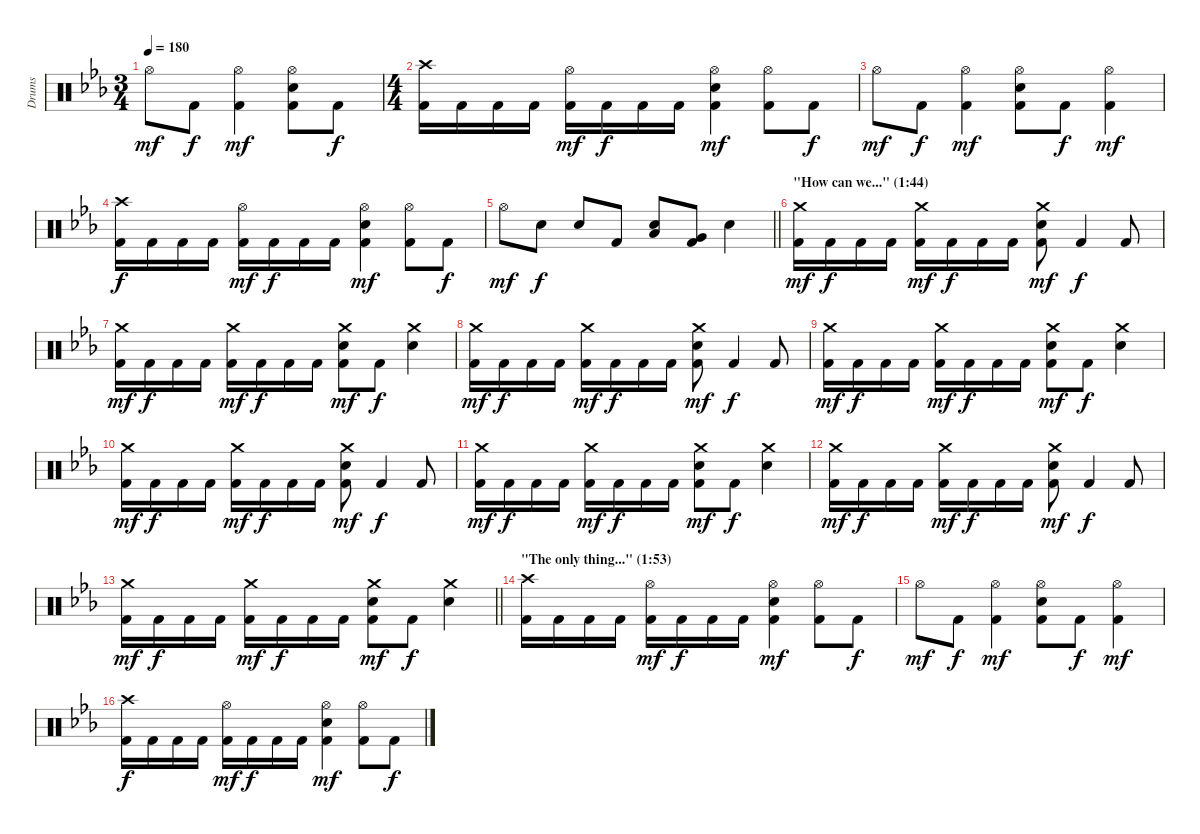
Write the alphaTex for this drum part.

\track ("Drums" "Drums") {instrument percussion}
\staff {score}
\articulation defaults
\ts (3 4)
\tempo 180
\clef neutral
\ks eb "Hi-Hat (open)".8{dy mf} "Kick (hit) 2".8{dy f}
("Hi-Hat (open)" "Kick (hit) 2").4{dy mf} ("Hi-Hat (open)" "Electric Snare (hit)" "Kick (hit) 2").8 "Kick (hit) 2".8{dy f} |
\ts (4 4)
("Crash high (hit)" "Kick (hit) 2").16 "Kick (hit) 2".16 "Kick (hit) 2".16 "Kick (hit) 2".16 ("Hi-Hat (open)" "Kick (hit) 2").16{dy mf} "Kick (hit) 2".16{dy f} "Kick (hit) 2".16 "Kick (hit) 2".16 ("Hi-Hat (open)" "Electric Snare (hit)" "Kick (hit) 2").4{dy mf} ("Hi-Hat (open)" "Kick (hit) 2").8 "Kick (hit) 2".8{dy f} |
"Hi-Hat (open)".8{dy mf} "Kick (hit) 2".8{dy f} ("Hi-Hat (open)" "Kick (hit) 2").4{dy mf} ("Hi-Hat (open)" "Electric Snare (hit)" "Kick (hit) 2").8 "Kick (hit) 2".8{dy f} ("Hi-Hat (open)" "Kick (hit) 2").4{dy mf} |
("Crash high (hit)" "Kick (hit) 2").16{dy f} "Kick (hit) 2".16 "Kick (hit) 2".16 "Kick (hit) 2".16 ("Hi-Hat (open)" "Kick (hit) 2").16{dy mf} "Kick (hit) 2".16{dy f} "Kick (hit) 2".16 "Kick (hit) 2".16 ("Hi-Hat (open)" "Electric Snare (hit)" "Kick (hit) 2").4{dy mf} ("Hi-Hat (open)" "Kick (hit) 2").8 "Kick (hit) 2".8{dy f} |
\barLineRight lightlight "Hi-Hat (open)".8{dy mf} "Electric Snare (hit)".8{dy f} "Electric Snare (hit)".8 "Kick (hit) 2".8
("Low Tom (hit)" "Electric Snare (hit)").8 ("Very Low Tom (hit)" "Kick (hit) 2").8 "Electric Snare (hit)".4 |
\section ("" "\"How can we...\" (1:44)")
("Crash medium (hit)" "Kick (hit) 2").16{dy mf} "Kick (hit) 2".16{dy f} "Kick (hit) 2".16 "Kick (hit) 2".16 ("Crash medium (hit)" "Kick (hit) 2").16{dy mf} "Kick (hit) 2".16{dy f} "Kick (hit) 2".16 "Kick (hit) 2".16 ("Crash medium (hit)" "Electric Snare (hit)" "Kick (hit) 2").8{dy mf} "Kick (hit) 2".4{dy f} "Kick (hit) 2".8 |
("Crash medium (hit)" "Kick (hit) 2").16{dy mf} "Kick (hit) 2".16{dy f} "Kick (hit) 2".16 "Kick (hit) 2".16 ("Crash medium (hit)" "Kick (hit) 2").16{dy mf} "Kick (hit) 2".16{dy f} "Kick (hit) 2".16 "Kick (hit) 2".16 ("Crash medium (hit)" "Electric Snare (hit)" "Kick (hit) 2").8{dy mf} "Kick (hit) 2".8{dy f} ("Crash medium (hit)" "Electric Snare (hit)").4 |
("Crash medium (hit)" "Kick (hit) 2").16{dy mf} "Kick (hit) 2".16{dy f} "Kick (hit) 2".16 "Kick (hit) 2".16 ("Crash medium (hit)" "Kick (hit) 2").16{dy mf} "Kick (hit) 2".16{dy f} "Kick (hit) 2".16 "Kick (hit) 2".16 ("Crash medium (hit)" "Electric Snare (hit)" "Kick (hit) 2").8{dy mf} "Kick (hit) 2".4{dy f} "Kick (hit) 2".8 |
("Crash medium (hit)" "Kick (hit) 2").16{dy mf} "Kick (hit) 2".16{dy f} "Kick (hit) 2".16 "Kick (hit) 2".16 ("Crash medium (hit)" "Kick (hit) 2").16{dy mf} "Kick (hit) 2".16{dy f} "Kick (hit) 2".16 "Kick (hit) 2".16 ("Crash medium (hit)" "Electric Snare (hit)" "Kick (hit) 2").8{dy mf} "Kick (hit) 2".8{dy f} ("Crash medium (hit)" "Electric Snare (hit)").4 |
("Crash medium (hit)" "Kick (hit) 2").16{dy mf} "Kick (hit) 2".16{dy f} "Kick (hit) 2".16 "Kick (hit) 2".16 ("Crash medium (hit)" "Kick (hit) 2").16{dy mf} "Kick (hit) 2".16{dy f} "Kick (hit) 2".16 "Kick (hit) 2".16 ("Crash medium (hit)" "Electric Snare (hit)" "Kick (hit) 2").8{dy mf} "Kick (hit) 2".4{dy f} "Kick (hit) 2".8 |
("Crash medium (hit)" "Kick (hit) 2").16{dy mf} "Kick (hit) 2".16{dy f} "Kick (hit) 2".16 "Kick (hit) 2".16 ("Crash medium (hit)" "Kick (hit) 2").16{dy mf} "Kick (hit) 2".16{dy f} "Kick (hit) 2".16 "Kick (hit) 2".16 ("Crash medium (hit)" "Electric Snare (hit)" "Kick (hit) 2").8{dy mf} "Kick (hit) 2".8{dy f} ("Crash medium (hit)" "Electric Snare (hit)").4 |
("Crash medium (hit)" "Kick (hit) 2").16{dy mf} "Kick (hit) 2".16{dy f} "Kick (hit) 2".16 "Kick (hit) 2".16 ("Crash medium (hit)" "Kick (hit) 2").16{dy mf} "Kick (hit) 2".16{dy f} "Kick (hit) 2".16 "Kick (hit) 2".16 ("Crash medium (hit)" "Electric Snare (hit)" "Kick (hit) 2").8{dy mf} "Kick (hit) 2".4{dy f} "Kick (hit) 2".8 |
\barLineRight lightlight
("Crash medium (hit)" "Kick (hit) 2").16{dy mf} "Kick (hit) 2".16{dy f} "Kick (hit) 2".16 "Kick (hit) 2".16 ("Crash medium (hit)" "Kick (hit) 2").16{dy mf} "Kick (hit) 2".16{dy f} "Kick (hit) 2".16 "Kick (hit) 2".16 ("Crash medium (hit)" "Electric Snare (hit)" "Kick (hit) 2").8{dy mf} "Kick (hit) 2".8{dy f} ("Crash medium (hit)" "Electric Snare (hit)").4 |
\section ("" "\"The only thing...\" (1:53)")
("Crash high (hit)" "Kick (hit) 2").16 "Kick (hit) 2".16 "Kick (hit) 2".16 "Kick (hit) 2".16 ("Hi-Hat (open)" "Kick (hit) 2").16{dy mf} "Kick (hit) 2".16{dy f} "Kick (hit) 2".16 "Kick (hit) 2".16 ("Hi-Hat (open)" "Electric Snare (hit)" "Kick (hit) 2").4{dy mf} ("Hi-Hat (open)" "Kick (hit) 2").8 "Kick (hit) 2".8{dy f} |
"Hi-Hat (open)".8{dy mf} "Kick (hit) 2".8{dy f} ("Hi-Hat (open)" "Kick (hit) 2").4{dy mf} ("Hi-Hat (open)" "Electric Snare (hit)" "Kick (hit) 2").8 "Kick (hit) 2".8{dy f} ("Hi-Hat (open)" "Kick (hit) 2").4{dy mf} |
("Crash high (hit)" "Kick (hit) 2").16{dy f} "Kick (hit) 2".16 "Kick (hit) 2".16 "Kick (hit) 2".16 ("Hi-Hat (open)" "Kick (hit) 2").16{dy mf} "Kick (hit) 2".16{dy f} "Kick (hit) 2".16 "Kick (hit) 2".16 ("Hi-Hat (open)" "Electric Snare (hit)" "Kick (hit) 2").4{dy mf} ("Hi-Hat (open)" "Kick (hit) 2").8 "Kick (hit) 2".8{dy f}
